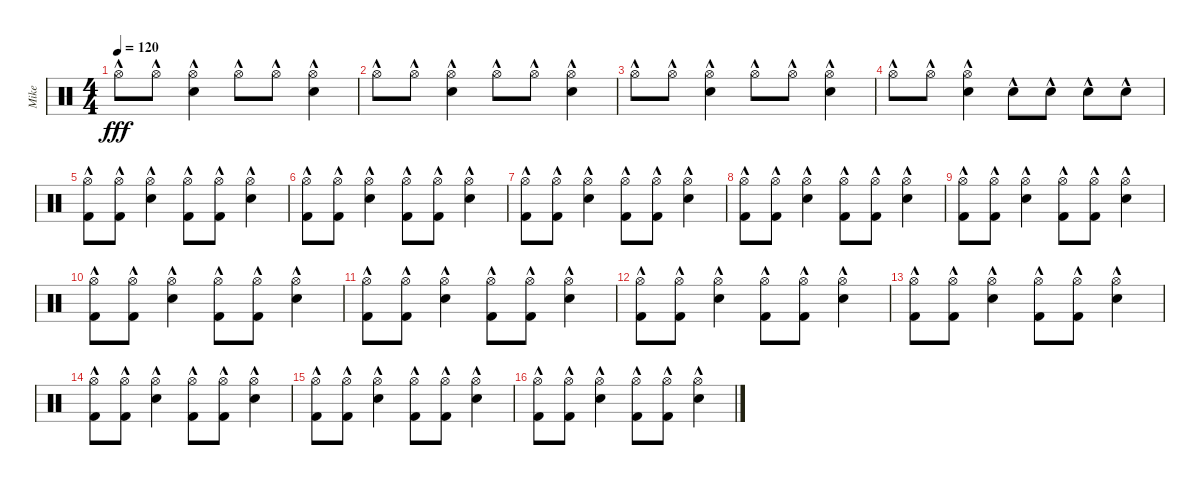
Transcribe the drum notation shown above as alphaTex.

\track ("Mike" "Mike") {instrument percussion}
\staff {score}
\articulation defaults
\ts (4 4)
\tempo 120
\clef neutral
\ks c "Hi-Hat (open)"{hac}.8{dy fff} "Hi-Hat (open)"{hac}.8
("Hi-Hat (open)"{hac} "Electric Snare (hit)"{hac}).4 "Hi-Hat (open)"{hac}.8 "Hi-Hat (open)"{hac}.8 ("Hi-Hat (open)"{hac} "Electric Snare (hit)"{hac}).4 |
"Hi-Hat (open)"{hac}.8 "Hi-Hat (open)"{hac}.8 ("Hi-Hat (open)"{hac} "Electric Snare (hit)"{hac}).4 "Hi-Hat (open)"{hac}.8 "Hi-Hat (open)"{hac}.8 ("Hi-Hat (open)"{hac} "Electric Snare (hit)"{hac}).4 |
"Hi-Hat (open)"{hac}.8 "Hi-Hat (open)"{hac}.8 ("Hi-Hat (open)"{hac} "Electric Snare (hit)"{hac}).4 "Hi-Hat (open)"{hac}.8 "Hi-Hat (open)"{hac}.8 ("Hi-Hat (open)"{hac} "Electric Snare (hit)"{hac}).4 |
"Hi-Hat (open)"{hac}.8 "Hi-Hat (open)"{hac}.8 ("Hi-Hat (open)"{hac} "Electric Snare (hit)"{hac}).4 "Electric Snare (hit)"{hac}.8 "Electric Snare (hit)"{hac}.8 "Electric Snare (hit)"{hac}.8 "Electric Snare (hit)"{hac}.8 |
("Hi-Hat (open)"{hac} "Kick (hit) 2"{hac}).8 ("Hi-Hat (open)"{hac} "Kick (hit) 2"{hac}).8 ("Hi-Hat (open)"{hac} "Electric Snare (hit)"{hac}).4 ("Hi-Hat (open)"{hac} "Kick (hit) 2"{hac}).8 ("Hi-Hat (open)"{hac} "Kick (hit) 2"{hac}).8 ("Hi-Hat (open)"{hac} "Electric Snare (hit)"{hac}).4 |
("Hi-Hat (open)"{hac} "Kick (hit) 2"{hac}).8 ("Hi-Hat (open)"{hac} "Kick (hit) 2"{hac}).8 ("Hi-Hat (open)"{hac} "Electric Snare (hit)"{hac}).4 ("Hi-Hat (open)"{hac} "Kick (hit) 2"{hac}).8 ("Hi-Hat (open)"{hac} "Kick (hit) 2"{hac}).8 ("Hi-Hat (open)"{hac} "Electric Snare (hit)"{hac}).4 |
("Hi-Hat (open)"{hac} "Kick (hit) 2"{hac}).8 ("Hi-Hat (open)"{hac} "Kick (hit) 2"{hac}).8 ("Hi-Hat (open)"{hac} "Electric Snare (hit)"{hac}).4 ("Hi-Hat (open)"{hac} "Kick (hit) 2"{hac}).8 ("Hi-Hat (open)"{hac} "Kick (hit) 2"{hac}).8 ("Hi-Hat (open)"{hac} "Electric Snare (hit)"{hac}).4 |
("Hi-Hat (open)"{hac} "Kick (hit) 2"{hac}).8 ("Hi-Hat (open)"{hac} "Kick (hit) 2"{hac}).8 ("Hi-Hat (open)"{hac} "Electric Snare (hit)"{hac}).4 ("Hi-Hat (open)"{hac} "Kick (hit) 2"{hac}).8 ("Hi-Hat (open)"{hac} "Kick (hit) 2"{hac}).8 ("Hi-Hat (open)"{hac} "Electric Snare (hit)"{hac}).4 |
("Hi-Hat (open)"{hac} "Kick (hit) 2"{hac}).8 ("Hi-Hat (open)"{hac} "Kick (hit) 2"{hac}).8 ("Hi-Hat (open)"{hac} "Electric Snare (hit)"{hac}).4 ("Hi-Hat (open)"{hac} "Kick (hit) 2"{hac}).8 ("Hi-Hat (open)"{hac} "Kick (hit) 2"{hac}).8 ("Hi-Hat (open)"{hac} "Electric Snare (hit)"{hac}).4 |
("Hi-Hat (open)"{hac} "Kick (hit) 2"{hac}).8 ("Hi-Hat (open)"{hac} "Kick (hit) 2"{hac}).8 ("Hi-Hat (open)"{hac} "Electric Snare (hit)"{hac}).4 ("Hi-Hat (open)"{hac} "Kick (hit) 2"{hac}).8 ("Hi-Hat (open)"{hac} "Kick (hit) 2"{hac}).8 ("Hi-Hat (open)"{hac} "Electric Snare (hit)"{hac}).4 |
("Hi-Hat (open)"{hac} "Kick (hit) 2"{hac}).8 ("Hi-Hat (open)"{hac} "Kick (hit) 2"{hac}).8 ("Hi-Hat (open)"{hac} "Electric Snare (hit)"{hac}).4 ("Hi-Hat (open)"{hac} "Kick (hit) 2"{hac}).8 ("Hi-Hat (open)"{hac} "Kick (hit) 2"{hac}).8 ("Hi-Hat (open)"{hac} "Electric Snare (hit)"{hac}).4 |
("Hi-Hat (open)"{hac} "Kick (hit) 2"{hac}).8 ("Hi-Hat (open)"{hac} "Kick (hit) 2"{hac}).8 ("Hi-Hat (open)"{hac} "Electric Snare (hit)"{hac}).4 ("Hi-Hat (open)"{hac} "Kick (hit) 2"{hac}).8 ("Hi-Hat (open)"{hac} "Kick (hit) 2"{hac}).8 ("Hi-Hat (open)"{hac} "Electric Snare (hit)"{hac}).4 |
("Hi-Hat (open)"{hac} "Kick (hit) 2"{hac}).8 ("Hi-Hat (open)"{hac} "Kick (hit) 2"{hac}).8 ("Hi-Hat (open)"{hac} "Electric Snare (hit)"{hac}).4 ("Hi-Hat (open)"{hac} "Kick (hit) 2"{hac}).8 ("Hi-Hat (open)"{hac} "Kick (hit) 2"{hac}).8 ("Hi-Hat (open)"{hac} "Electric Snare (hit)"{hac}).4 |
("Hi-Hat (open)"{hac} "Kick (hit) 2"{hac}).8 ("Hi-Hat (open)"{hac} "Kick (hit) 2"{hac}).8 ("Hi-Hat (open)"{hac} "Electric Snare (hit)"{hac}).4 ("Hi-Hat (open)"{hac} "Kick (hit) 2"{hac}).8 ("Hi-Hat (open)"{hac} "Kick (hit) 2"{hac}).8 ("Hi-Hat (open)"{hac} "Electric Snare (hit)"{hac}).4 |
("Hi-Hat (open)"{hac} "Kick (hit) 2"{hac}).8 ("Hi-Hat (open)"{hac} "Kick (hit) 2"{hac}).8 ("Hi-Hat (open)"{hac} "Electric Snare (hit)"{hac}).4 ("Hi-Hat (open)"{hac} "Kick (hit) 2"{hac}).8 ("Hi-Hat (open)"{hac} "Kick (hit) 2"{hac}).8 ("Hi-Hat (open)"{hac} "Electric Snare (hit)"{hac}).4 |
("Hi-Hat (open)"{hac} "Kick (hit) 2"{hac}).8 ("Hi-Hat (open)"{hac} "Kick (hit) 2"{hac}).8 ("Hi-Hat (open)"{hac} "Electric Snare (hit)"{hac}).4 ("Hi-Hat (open)"{hac} "Kick (hit) 2"{hac}).8 ("Hi-Hat (open)"{hac} "Kick (hit) 2"{hac}).8 ("Hi-Hat (open)"{hac} "Electric Snare (hit)"{hac}).4
